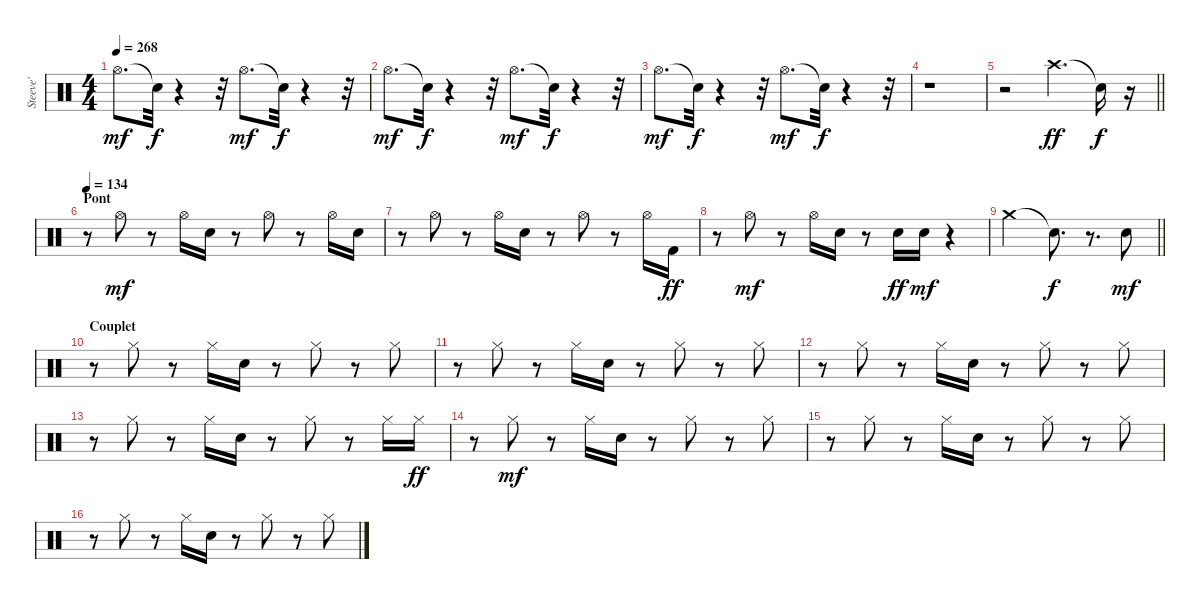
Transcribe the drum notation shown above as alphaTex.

\track ("Steeve'" "Steeve'") {instrument percussion}
\staff {score}
\articulation defaults
\ts (4 4)
\tempo 268
\clef neutral
\ks c "Hi-Hat (open)".8{d dy mf} "Snare (hit)"{t}.32{dy f}
r.4 r.32 "Hi-Hat (open)".8{d dy mf} "Snare (hit)"{t}.32{dy f} r.4 r.32 |
"Hi-Hat (open)".8{d dy mf} "Snare (hit)"{t}.32{dy f} r.4 r.32 "Hi-Hat (open)".8{d dy mf} "Snare (hit)"{t}.32{dy f} r.4 r.32 |
"Hi-Hat (open)".8{d dy mf} "Snare (hit)"{t}.32{dy f} r.4 r.32 "Hi-Hat (open)".8{d dy mf} "Snare (hit)"{t}.32{dy f} r.4 r.32 |
r.1 |
\barLineRight lightlight
r.2 "Crash high (hit)".4{d dy ff} "Snare (hit)"{t}.16{dy f} r.16 |
\section ("" "Pont")
\tempo 134
r.8 "Hi-Hat (open)".8{dy mf} r.8 "Hi-Hat (open)".16 "Electric Snare (hit)".16 r.8 "Hi-Hat (open)".8 r.8 "Hi-Hat (open)".16 "Electric Snare (hit)".16 |
r.8 "Hi-Hat (open)".8 r.8 "Hi-Hat (open)".16 "Electric Snare (hit)".16 r.8 "Hi-Hat (open)".8 r.8 "Hi-Hat (open)".16 "Kick (hit) 2".16{dy ff} |
r.8 "Hi-Hat (open)".8{dy mf} r.8 "Hi-Hat (open)".16 "Electric Snare (hit)".16 r.8 "Electric Snare (hit)".16{dy ff} "Electric Snare (hit)".16{dy mf} r.4 |
\barLineRight lightlight "Crash medium (hit)".2 "Snare (hit)"{t}.8{d dy f}
r.8{d} "Electric Snare (hit)".8{dy mf} |
\section ("" "Couplet")
r.8 "Hi-Hat (closed)".8 r.8 "Hi-Hat (closed)".16 "Electric Snare (hit)".16 r.8 "Hi-Hat (closed)".8 r.8 "Hi-Hat (closed)".8 |
r.8 "Hi-Hat (closed)".8 r.8 "Hi-Hat (closed)".16 "Electric Snare (hit)".16 r.8 "Hi-Hat (closed)".8 r.8 "Hi-Hat (closed)".8 |
r.8 "Hi-Hat (closed)".8 r.8 "Hi-Hat (closed)".16 "Electric Snare (hit)".16 r.8 "Hi-Hat (closed)".8 r.8 "Hi-Hat (closed)".8 |
r.8 "Hi-Hat (closed)".8 r.8 "Hi-Hat (closed)".16 "Electric Snare (hit)".16 r.8 "Hi-Hat (closed)".8 r.8 "Hi-Hat (closed)".16 "Hi-Hat (closed)".16{dy ff} |
r.8 "Hi-Hat (closed)".8{dy mf} r.8 "Hi-Hat (closed)".16 "Electric Snare (hit)".16 r.8 "Hi-Hat (closed)".8 r.8 "Hi-Hat (closed)".8 |
r.8 "Hi-Hat (closed)".8 r.8 "Hi-Hat (closed)".16 "Electric Snare (hit)".16 r.8 "Hi-Hat (closed)".8 r.8 "Hi-Hat (closed)".8 |
r.8 "Hi-Hat (closed)".8 r.8 "Hi-Hat (closed)".16 "Electric Snare (hit)".16 r.8 "Hi-Hat (closed)".8 r.8 "Hi-Hat (closed)".8
